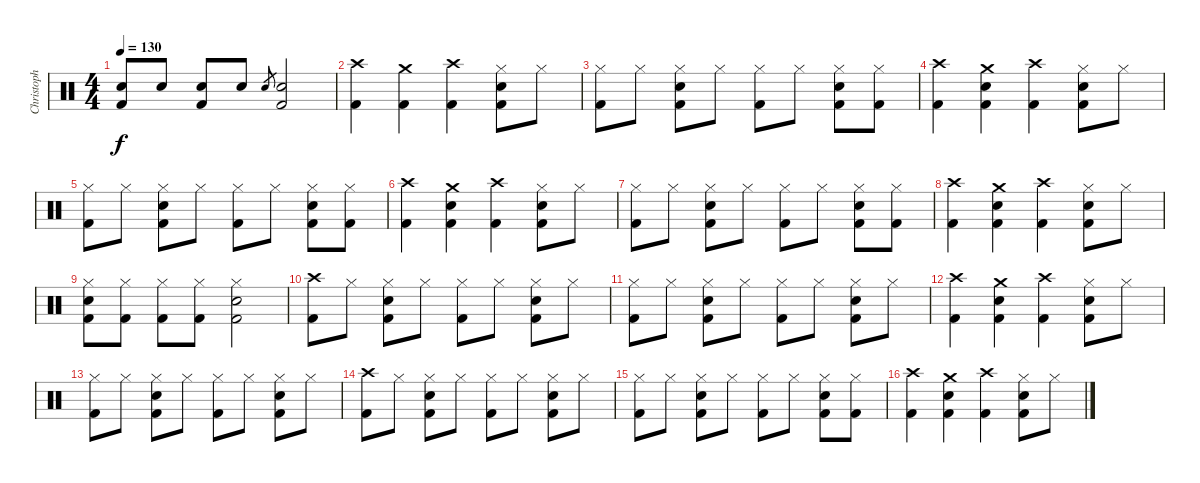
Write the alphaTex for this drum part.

\track ("Christoph" "Christoph") {instrument percussion}
\staff {score}
\articulation defaults
\ts (4 4)
\tempo 130
\clef neutral
\ks c
("Electric Snare (hit)" "Kick (hit) 2").8{dy f} "Electric Snare (hit)".8 ("Electric Snare (hit)" "Kick (hit) 2").8 "Electric Snare (hit)".8 "Electric Snare (hit)".8{gr} ("Electric Snare (hit)" "Kick (hit) 2").2 |
("Crash high (hit)" "Kick (hit) 2").4 ("Crash medium (hit)" "Kick (hit) 2").4 ("Crash high (hit)" "Kick (hit) 2").4 ("Hi-Hat (closed)" "Electric Snare (hit)" "Kick (hit) 2").8 "Hi-Hat (closed)".8 |
("Hi-Hat (closed)" "Kick (hit) 2").8 "Hi-Hat (closed)".8 ("Hi-Hat (closed)" "Electric Snare (hit)" "Kick (hit) 2").8 "Hi-Hat (closed)".8 ("Hi-Hat (closed)" "Kick (hit) 2").8 "Hi-Hat (closed)".8 ("Hi-Hat (closed)" "Electric Snare (hit)" "Kick (hit) 2").8 ("Hi-Hat (closed)" "Kick (hit) 2").8 |
("Crash high (hit)" "Kick (hit) 2").4 ("Crash medium (hit)" "Electric Snare (hit)" "Kick (hit) 2").4 ("Crash high (hit)" "Kick (hit) 2").4 ("Hi-Hat (closed)" "Electric Snare (hit)" "Kick (hit) 2").8 "Hi-Hat (closed)".8 |
("Hi-Hat (closed)" "Kick (hit) 2").8 "Hi-Hat (closed)".8 ("Hi-Hat (closed)" "Electric Snare (hit)" "Kick (hit) 2").8 "Hi-Hat (closed)".8 ("Hi-Hat (closed)" "Kick (hit) 2").8 "Hi-Hat (closed)".8 ("Hi-Hat (closed)" "Electric Snare (hit)" "Kick (hit) 2").8 ("Hi-Hat (closed)" "Kick (hit) 2").8 |
("Crash high (hit)" "Kick (hit) 2").4 ("Crash medium (hit)" "Electric Snare (hit)" "Kick (hit) 2").4 ("Crash high (hit)" "Kick (hit) 2").4 ("Hi-Hat (closed)" "Electric Snare (hit)" "Kick (hit) 2").8 "Hi-Hat (closed)".8 |
("Hi-Hat (closed)" "Kick (hit) 2").8 "Hi-Hat (closed)".8 ("Hi-Hat (closed)" "Electric Snare (hit)" "Kick (hit) 2").8 "Hi-Hat (closed)".8 ("Hi-Hat (closed)" "Kick (hit) 2").8 "Hi-Hat (closed)".8 ("Hi-Hat (closed)" "Electric Snare (hit)" "Kick (hit) 2").8 ("Hi-Hat (closed)" "Kick (hit) 2").8 |
("Crash high (hit)" "Kick (hit) 2").4 ("Crash medium (hit)" "Electric Snare (hit)" "Kick (hit) 2").4 ("Crash high (hit)" "Kick (hit) 2").4 ("Hi-Hat (closed)" "Electric Snare (hit)" "Kick (hit) 2").8 "Hi-Hat (closed)".8 |
("Hi-Hat (closed)" "Electric Snare (hit)" "Kick (hit) 2").8 ("Hi-Hat (closed)" "Kick (hit) 2").8 ("Hi-Hat (closed)" "Kick (hit) 2").8 ("Hi-Hat (closed)" "Kick (hit) 2").8 ("Hi-Hat (closed)" "Electric Snare (hit)" "Kick (hit) 2").2 |
("Crash high (hit)" "Kick (hit) 2").8 "Hi-Hat (closed)".8 ("Hi-Hat (closed)" "Electric Snare (hit)" "Kick (hit) 2").8 "Hi-Hat (closed)".8 ("Hi-Hat (closed)" "Kick (hit) 2").8 "Hi-Hat (closed)".8 ("Hi-Hat (closed)" "Electric Snare (hit)" "Kick (hit) 2").8 "Hi-Hat (closed)".8 |
("Hi-Hat (closed)" "Kick (hit) 2").8 "Hi-Hat (closed)".8 ("Hi-Hat (closed)" "Electric Snare (hit)" "Kick (hit) 2").8 "Hi-Hat (closed)".8 ("Hi-Hat (closed)" "Kick (hit) 2").8 "Hi-Hat (closed)".8 ("Hi-Hat (closed)" "Electric Snare (hit)" "Kick (hit) 2").8 "Hi-Hat (closed)".8 |
("Crash high (hit)" "Kick (hit) 2").4 ("Crash medium (hit)" "Electric Snare (hit)" "Kick (hit) 2").4 ("Crash high (hit)" "Kick (hit) 2").4 ("Hi-Hat (closed)" "Electric Snare (hit)" "Kick (hit) 2").8 "Hi-Hat (closed)".8 |
("Hi-Hat (closed)" "Kick (hit) 2").8 "Hi-Hat (closed)".8 ("Hi-Hat (closed)" "Electric Snare (hit)" "Kick (hit) 2").8 "Hi-Hat (closed)".8 ("Hi-Hat (closed)" "Kick (hit) 2").8 "Hi-Hat (closed)".8 ("Hi-Hat (closed)" "Electric Snare (hit)" "Kick (hit) 2").8 "Hi-Hat (closed)".8 |
("Crash high (hit)" "Kick (hit) 2").8 "Hi-Hat (closed)".8 ("Hi-Hat (closed)" "Electric Snare (hit)" "Kick (hit) 2").8 "Hi-Hat (closed)".8 ("Hi-Hat (closed)" "Kick (hit) 2").8 "Hi-Hat (closed)".8 ("Hi-Hat (closed)" "Electric Snare (hit)" "Kick (hit) 2").8 "Hi-Hat (closed)".8 |
("Hi-Hat (closed)" "Kick (hit) 2").8 "Hi-Hat (closed)".8 ("Hi-Hat (closed)" "Electric Snare (hit)" "Kick (hit) 2").8 "Hi-Hat (closed)".8 ("Hi-Hat (closed)" "Kick (hit) 2").8 "Hi-Hat (closed)".8 ("Hi-Hat (closed)" "Electric Snare (hit)" "Kick (hit) 2").8 ("Hi-Hat (closed)" "Kick (hit) 2").8 |
("Crash high (hit)" "Kick (hit) 2").4 ("Crash medium (hit)" "Electric Snare (hit)" "Kick (hit) 2").4 ("Crash high (hit)" "Kick (hit) 2").4 ("Hi-Hat (closed)" "Electric Snare (hit)" "Kick (hit) 2").8 "Hi-Hat (closed)".8
